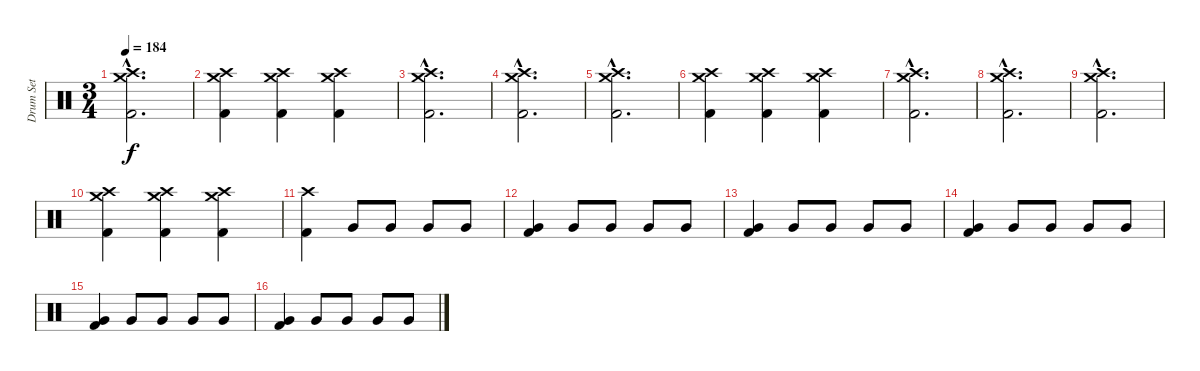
\track ("Drum Set" "Drum Set") {instrument percussion}
\staff {score}
\articulation defaults
\ts (3 4)
\tempo 184
\clef neutral
\ks c
("Crash medium (hit)"{hac} "Crash high (hit)"{hac} "Kick (hit) 2"{hac}).2{d dy f} |
("Crash medium (hit)" "Crash high (hit)" "Kick (hit) 2").4 ("Crash medium (hit)" "Crash high (hit)" "Kick (hit) 2").4 ("Crash high (hit)" "Crash medium (hit)" "Kick (hit) 2").4 |
("Crash medium (hit)"{hac} "Crash high (hit)"{hac} "Kick (hit) 2"{hac}).2{d} |
("Crash medium (hit)"{hac} "Crash high (hit)"{hac} "Kick (hit) 2"{hac}).2{d} |
("Crash medium (hit)"{hac} "Crash high (hit)"{hac} "Kick (hit) 2"{hac}).2{d} |
("Crash medium (hit)" "Crash high (hit)" "Kick (hit) 2").4 ("Crash medium (hit)" "Crash high (hit)" "Kick (hit) 2").4 ("Crash high (hit)" "Crash medium (hit)" "Kick (hit) 2").4 |
("Crash medium (hit)"{hac} "Crash high (hit)"{hac} "Kick (hit) 2"{hac}).2{d} |
("Crash medium (hit)"{hac} "Crash high (hit)"{hac} "Kick (hit) 2"{hac}).2{d} |
("Crash medium (hit)"{hac} "Crash high (hit)"{hac} "Kick (hit) 2"{hac}).2{d} |
("Crash medium (hit)" "Crash high (hit)" "Kick (hit) 2").4 ("Crash medium (hit)" "Crash high (hit)" "Kick (hit) 2").4 ("Crash high (hit)" "Crash medium (hit)" "Kick (hit) 2").4 |
("Crash high (hit)" "Kick (hit) 2").4 "Very Low Tom (hit)".8 "Very Low Tom (hit)".8 "Very Low Tom (hit)".8 "Very Low Tom (hit)".8 |
("Very Low Tom (hit)" "Kick (hit) 2").4 "Very Low Tom (hit)".8 "Very Low Tom (hit)".8 "Very Low Tom (hit)".8 "Very Low Tom (hit)".8 |
("Very Low Tom (hit)" "Kick (hit) 2").4 "Very Low Tom (hit)".8 "Very Low Tom (hit)".8 "Very Low Tom (hit)".8 "Very Low Tom (hit)".8 |
("Very Low Tom (hit)" "Kick (hit) 2").4 "Very Low Tom (hit)".8 "Very Low Tom (hit)".8 "Very Low Tom (hit)".8 "Very Low Tom (hit)".8 |
("Very Low Tom (hit)" "Kick (hit) 2").4 "Very Low Tom (hit)".8 "Very Low Tom (hit)".8 "Very Low Tom (hit)".8 "Very Low Tom (hit)".8 |
("Very Low Tom (hit)" "Kick (hit) 2").4 "Very Low Tom (hit)".8 "Very Low Tom (hit)".8 "Very Low Tom (hit)".8 "Very Low Tom (hit)".8
